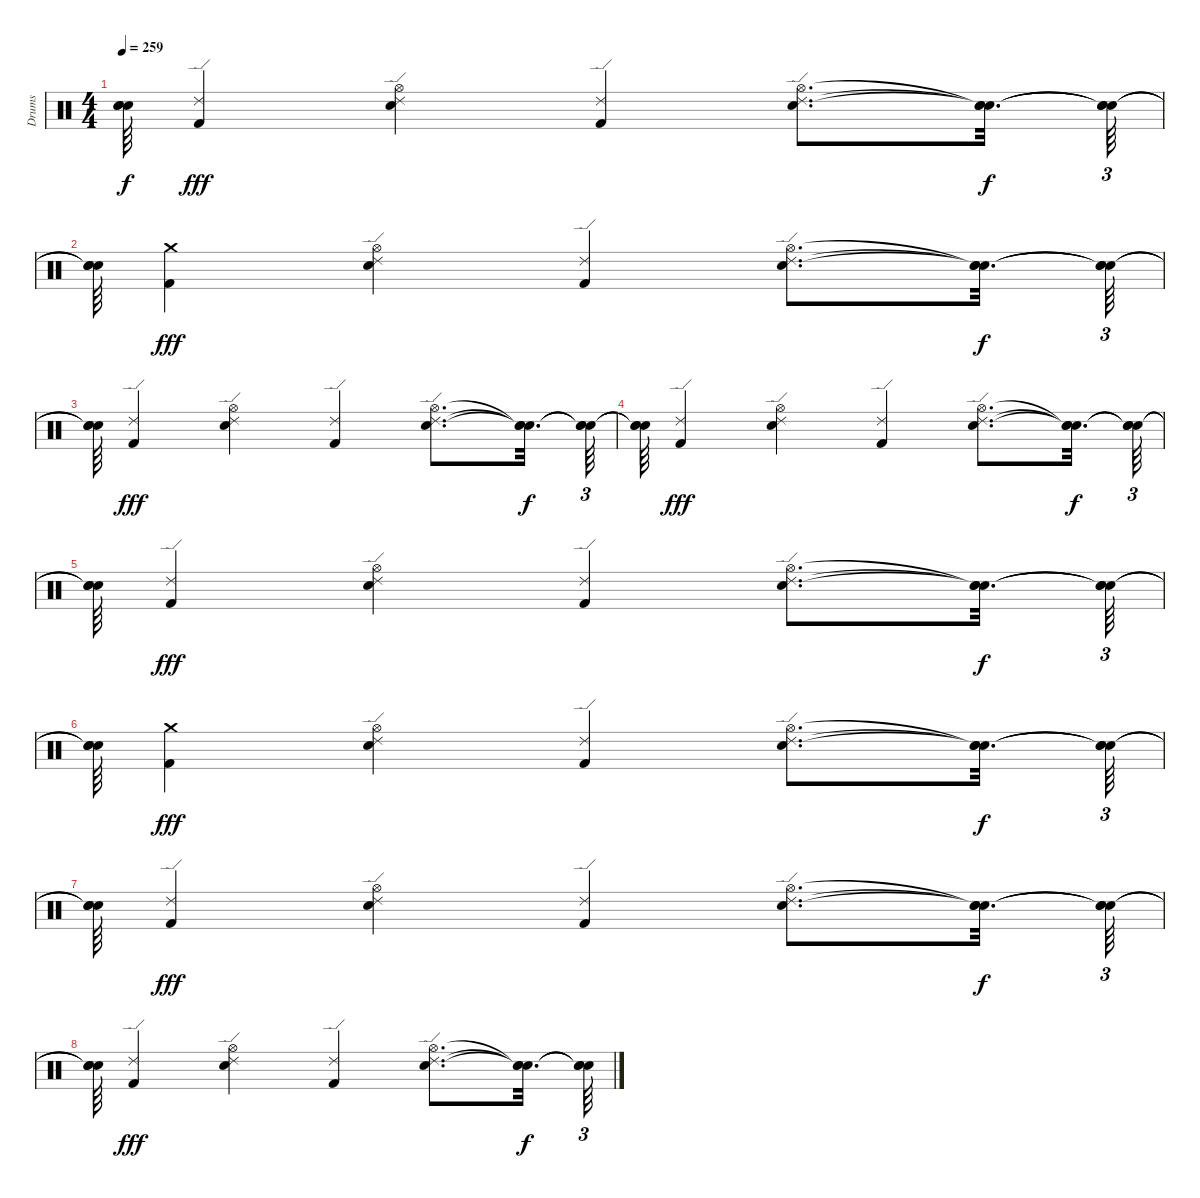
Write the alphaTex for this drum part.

\track ("Drums" "Drums") {instrument percussion}
\staff {score}
\articulation defaults
\ts (4 4)
\tempo 259
\clef neutral
\ks c
("Snare (hit)"{t} "Snare (hit)"{t} "Snare (hit)"{t}).64{dy f} ("Kick (hit) 2" "Ride (edge) 2").4{dy fff} ("Electric Snare (hit)" "Ride (edge) 2" "Hi-Hat (open)").4 ("Kick (hit) 2" "Ride (edge) 2").4 ("Electric Snare (hit)" "Ride (edge) 2" "Hi-Hat (open)").8{d} ("Snare (hit)"{t} "Snare (hit)"{t} "Snare (hit)"{t}).32{d dy f} ("Snare (hit)"{t} "Snare (hit)"{t} "Snare (hit)"{t}).64{tu (3 2)} |
("Snare (hit)"{t} "Snare (hit)"{t} "Snare (hit)"{t}).64 ("Kick (hit) 2" "Crash medium (hit)").4{dy fff} ("Electric Snare (hit)" "Ride (edge) 2" "Hi-Hat (open)").4 ("Kick (hit) 2" "Ride (edge) 2").4 ("Electric Snare (hit)" "Ride (edge) 2" "Hi-Hat (open)").8{d} ("Snare (hit)"{t} "Snare (hit)"{t} "Snare (hit)"{t}).32{d dy f} ("Snare (hit)"{t} "Snare (hit)"{t} "Snare (hit)"{t}).64{tu (3 2)} |
("Snare (hit)"{t} "Snare (hit)"{t} "Snare (hit)"{t}).64 ("Kick (hit) 2" "Ride (edge) 2").4{dy fff} ("Electric Snare (hit)" "Ride (edge) 2" "Hi-Hat (open)").4 ("Kick (hit) 2" "Ride (edge) 2").4 ("Electric Snare (hit)" "Ride (edge) 2" "Hi-Hat (open)").8{d} ("Snare (hit)"{t} "Snare (hit)"{t} "Snare (hit)"{t}).32{d dy f} ("Snare (hit)"{t} "Snare (hit)"{t} "Snare (hit)"{t}).64{tu (3 2)} |
("Snare (hit)"{t} "Snare (hit)"{t} "Snare (hit)"{t}).64 ("Kick (hit) 2" "Ride (edge) 2").4{dy fff} ("Electric Snare (hit)" "Ride (edge) 2" "Hi-Hat (open)").4 ("Kick (hit) 2" "Ride (edge) 2").4 ("Electric Snare (hit)" "Ride (edge) 2" "Hi-Hat (open)").8{d} ("Snare (hit)"{t} "Snare (hit)"{t} "Snare (hit)"{t}).32{d dy f} ("Snare (hit)"{t} "Snare (hit)"{t} "Snare (hit)"{t}).64{tu (3 2)} |
("Snare (hit)"{t} "Snare (hit)"{t} "Snare (hit)"{t}).64 ("Kick (hit) 2" "Ride (edge) 2").4{dy fff} ("Electric Snare (hit)" "Ride (edge) 2" "Hi-Hat (open)").4 ("Kick (hit) 2" "Ride (edge) 2").4 ("Electric Snare (hit)" "Ride (edge) 2" "Hi-Hat (open)").8{d} ("Snare (hit)"{t} "Snare (hit)"{t} "Snare (hit)"{t}).32{d dy f} ("Snare (hit)"{t} "Snare (hit)"{t} "Snare (hit)"{t}).64{tu (3 2)} |
("Snare (hit)"{t} "Snare (hit)"{t} "Snare (hit)"{t}).64 ("Kick (hit) 2" "Crash medium (hit)").4{dy fff} ("Electric Snare (hit)" "Ride (edge) 2" "Hi-Hat (open)").4 ("Kick (hit) 2" "Ride (edge) 2").4 ("Electric Snare (hit)" "Ride (edge) 2" "Hi-Hat (open)").8{d} ("Snare (hit)"{t} "Snare (hit)"{t} "Snare (hit)"{t}).32{d dy f} ("Snare (hit)"{t} "Snare (hit)"{t} "Snare (hit)"{t}).64{tu (3 2)} |
("Snare (hit)"{t} "Snare (hit)"{t} "Snare (hit)"{t}).64 ("Kick (hit) 2" "Ride (edge) 2").4{dy fff} ("Electric Snare (hit)" "Ride (edge) 2" "Hi-Hat (open)").4 ("Kick (hit) 2" "Ride (edge) 2").4 ("Electric Snare (hit)" "Ride (edge) 2" "Hi-Hat (open)").8{d} ("Snare (hit)"{t} "Snare (hit)"{t} "Snare (hit)"{t}).32{d dy f} ("Snare (hit)"{t} "Snare (hit)"{t} "Snare (hit)"{t}).64{tu (3 2)} |
("Snare (hit)"{t} "Snare (hit)"{t} "Snare (hit)"{t}).64 ("Kick (hit) 2" "Ride (edge) 2").4{dy fff} ("Electric Snare (hit)" "Ride (edge) 2" "Hi-Hat (open)").4 ("Kick (hit) 2" "Ride (edge) 2").4 ("Electric Snare (hit)" "Ride (edge) 2" "Hi-Hat (open)").8{d} ("Snare (hit)"{t} "Snare (hit)"{t} "Snare (hit)"{t}).32{d dy f} ("Snare (hit)"{t} "Snare (hit)"{t} "Snare (hit)"{t}).64{tu (3 2)}
